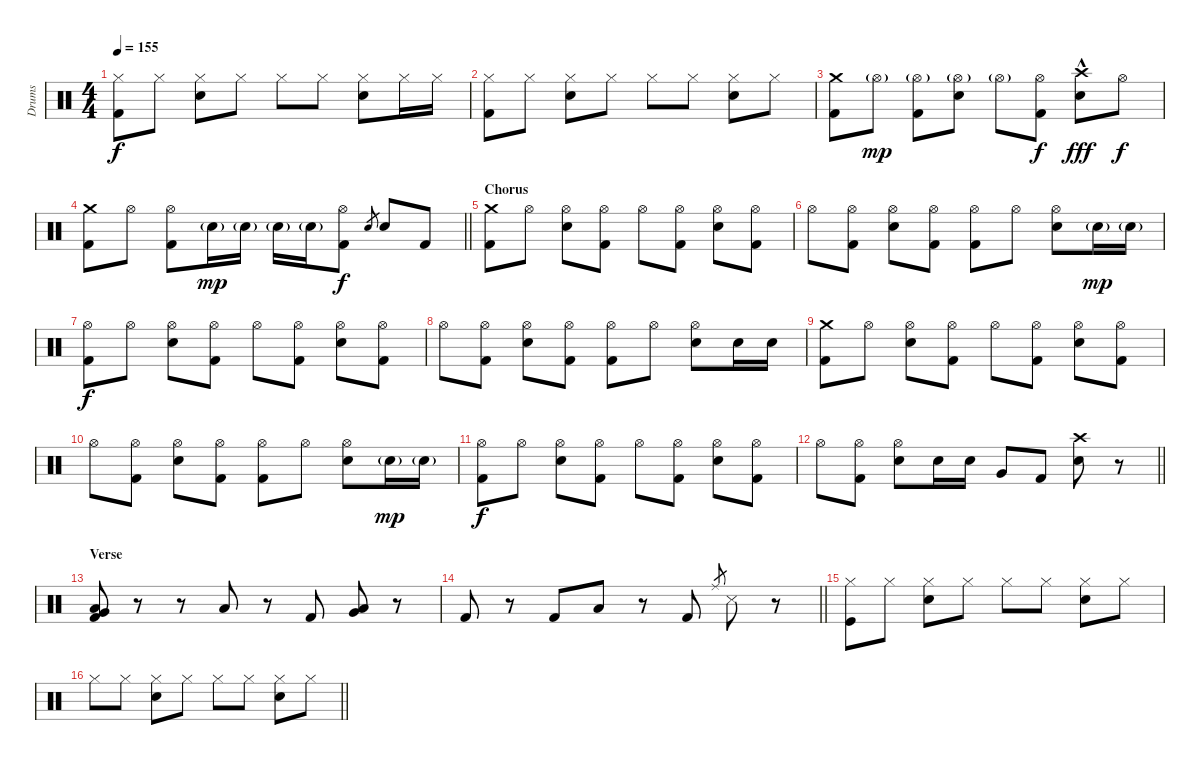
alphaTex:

\track ("Drums" "Drums") {instrument percussion}
\staff {score}
\articulation defaults
\ts (4 4)
\tempo 155
\clef neutral
\ks c
("Hi-Hat (closed)" "Kick (hit) 2").8{dy f} "Hi-Hat (closed)".8 ("Hi-Hat (closed)" "Snare (hit) 2").8 "Hi-Hat (closed)".8 "Hi-Hat (closed)".8 "Hi-Hat (closed)".8 ("Hi-Hat (closed)" "Snare (hit) 2").8 "Hi-Hat (closed)".16 "Hi-Hat (closed)".16 |
("Hi-Hat (closed)" "Kick (hit) 2").8 "Hi-Hat (closed)".8 ("Hi-Hat (closed)" "Snare (hit) 2").8 "Hi-Hat (closed)".8 "Hi-Hat (closed)".8 "Hi-Hat (closed)".8 ("Hi-Hat (closed)" "Snare (hit) 2").8 "Hi-Hat (closed)".8 |
("Crash medium (hit)" "Kick (hit) 2").8 "Hi-Hat (open)"{g}.8{dy mp} ("Hi-Hat (open)"{g} "Kick (hit) 2").8 ("Hi-Hat (open)"{g} "Snare (hit) 2").8 "Hi-Hat (open)"{g}.8 ("Hi-Hat (open)" "Kick (hit) 2").8{dy f} ("Crash high (hit)" "Snare (hit) 2"{hac}).8{dy fff} "Hi-Hat (open)".8{dy f} |
\barLineRight lightlight
("Crash medium (hit)" "Kick (hit) 2").8 "Hi-Hat (open)".8 ("Hi-Hat (open)" "Kick (hit) 2").8 "Snare (hit) 2"{g}.16{dy mp} "Snare (hit) 2"{g}.16 "Snare (hit) 2"{g}.16 "Snare (hit) 2"{g}.16 ("Hi-Hat (open)" "Kick (hit) 2").8{dy f} "Snare (hit) 2".8{gr} "Snare (hit) 2".8 "Kick (hit) 2".8 |
\section ("" "Chorus")
("Crash medium (hit)" "Kick (hit) 2").8 "Hi-Hat (open)".8 ("Hi-Hat (open)" "Snare (hit) 2").8 ("Hi-Hat (open)" "Kick (hit) 2").8 "Hi-Hat (open)".8 ("Hi-Hat (open)" "Kick (hit) 2").8 ("Hi-Hat (open)" "Snare (hit) 2").8 ("Hi-Hat (open)" "Kick (hit) 2").8 |
"Hi-Hat (open)".8 ("Hi-Hat (open)" "Kick (hit) 2").8 ("Hi-Hat (open)" "Snare (hit) 2").8 ("Hi-Hat (open)" "Kick (hit) 2").8 ("Hi-Hat (open)" "Kick (hit) 2").8 "Hi-Hat (open)".8 ("Hi-Hat (open)" "Snare (hit) 2").8 "Snare (hit) 2"{g}.16{dy mp} "Snare (hit) 2"{g}.16 |
("Hi-Hat (open)" "Kick (hit) 2").8{dy f} "Hi-Hat (open)".8 ("Hi-Hat (open)" "Snare (hit) 2").8 ("Hi-Hat (open)" "Kick (hit) 2").8 "Hi-Hat (open)".8 ("Hi-Hat (open)" "Kick (hit) 2").8 ("Hi-Hat (open)" "Snare (hit) 2").8 ("Hi-Hat (open)" "Kick (hit) 2").8 |
"Hi-Hat (open)".8 ("Hi-Hat (open)" "Kick (hit) 2").8 ("Hi-Hat (open)" "Snare (hit) 2").8 ("Hi-Hat (open)" "Kick (hit) 2").8 ("Hi-Hat (open)" "Kick (hit) 2").8 "Hi-Hat (open)".8 ("Hi-Hat (open)" "Snare (hit) 2").8 "Snare (hit) 2".16 "Snare (hit) 2".16 |
("Crash medium (hit)" "Kick (hit) 2").8 "Hi-Hat (open)".8 ("Hi-Hat (open)" "Snare (hit) 2").8 ("Hi-Hat (open)" "Kick (hit) 2").8 "Hi-Hat (open)".8 ("Hi-Hat (open)" "Kick (hit) 2").8 ("Hi-Hat (open)" "Snare (hit) 2").8 ("Hi-Hat (open)" "Kick (hit) 2").8 |
"Hi-Hat (open)".8 ("Hi-Hat (open)" "Kick (hit) 2").8 ("Hi-Hat (open)" "Snare (hit) 2").8 ("Hi-Hat (open)" "Kick (hit) 2").8 ("Hi-Hat (open)" "Kick (hit) 2").8 "Hi-Hat (open)".8 ("Hi-Hat (open)" "Snare (hit) 2").8 "Snare (hit) 2"{g}.16{dy mp} "Snare (hit) 2"{g}.16 |
("Hi-Hat (open)" "Kick (hit) 2").8{dy f} "Hi-Hat (open)".8 ("Hi-Hat (open)" "Snare (hit) 2").8 ("Hi-Hat (open)" "Kick (hit) 2").8 "Hi-Hat (open)".8 ("Hi-Hat (open)" "Kick (hit) 2").8 ("Hi-Hat (open)" "Snare (hit) 2").8 ("Hi-Hat (open)" "Kick (hit) 2").8 |
\barLineRight lightlight "Hi-Hat (open)".8
("Hi-Hat (open)" "Kick (hit) 2").8 ("Hi-Hat (open)" "Snare (hit) 2").8 "Snare (hit) 2".16 "Snare (hit) 2".16 "Very Low Tom (hit)".8 "Kick (hit) 2".8 ("Crash high (hit)" "Snare (hit) 2").8 r.8 |
\section ("" "Verse")
("Low Tom (hit)" "Very Low Tom (hit)" "Kick (hit) 2").8 r.8 r.8 "Low Tom (hit)".8 r.8 "Kick (hit) 2".8 ("Low Tom (hit)" "Very Low Tom (hit)").8 r.8 |
\barLineRight lightlight "Kick (hit) 2".8
r.8 "Kick (hit) 2".8 "Low Tom (hit)".8 r.8 "Kick (hit) 2".8 "Ride (middle)".8{gr} "Snare (side stick) 3".8 r.8 |
("Hi-Hat (closed)" "Kick (hit)").8 "Hi-Hat (closed)".8 ("Hi-Hat (closed)" "Snare (hit) 2").8 "Hi-Hat (closed)".8 "Hi-Hat (closed)".8 "Hi-Hat (closed)".8 ("Hi-Hat (closed)" "Snare (hit) 2").8 "Hi-Hat (closed)".8 |
\barLineRight lightlight "Hi-Hat (closed)".8 "Hi-Hat (closed)".8
("Hi-Hat (closed)" "Snare (hit) 2").8 "Hi-Hat (closed)".8 "Hi-Hat (closed)".8 "Hi-Hat (closed)".8 ("Hi-Hat (closed)" "Snare (hit) 2").8 "Hi-Hat (closed)".8
